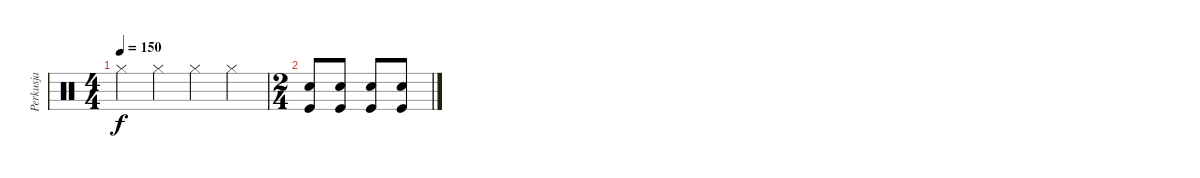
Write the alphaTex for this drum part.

\track ("Perkusja" "Perkusja") {instrument percussion}
\staff {score}
\articulation defaults
\ts (4 4)
\tempo 150
\clef neutral
\ks c "Hi-Hat (closed)".4{dy f} "Hi-Hat (closed)".4 "Hi-Hat (closed)".4 "Hi-Hat (closed)".4
|
\ts (2 4)
("Snare (hit) 2" "Kick (hit)").8 ("Snare (hit) 2" "Kick (hit)").8 ("Snare (hit) 2" "Kick (hit)").8 ("Snare (hit) 2" "Kick (hit)").8
